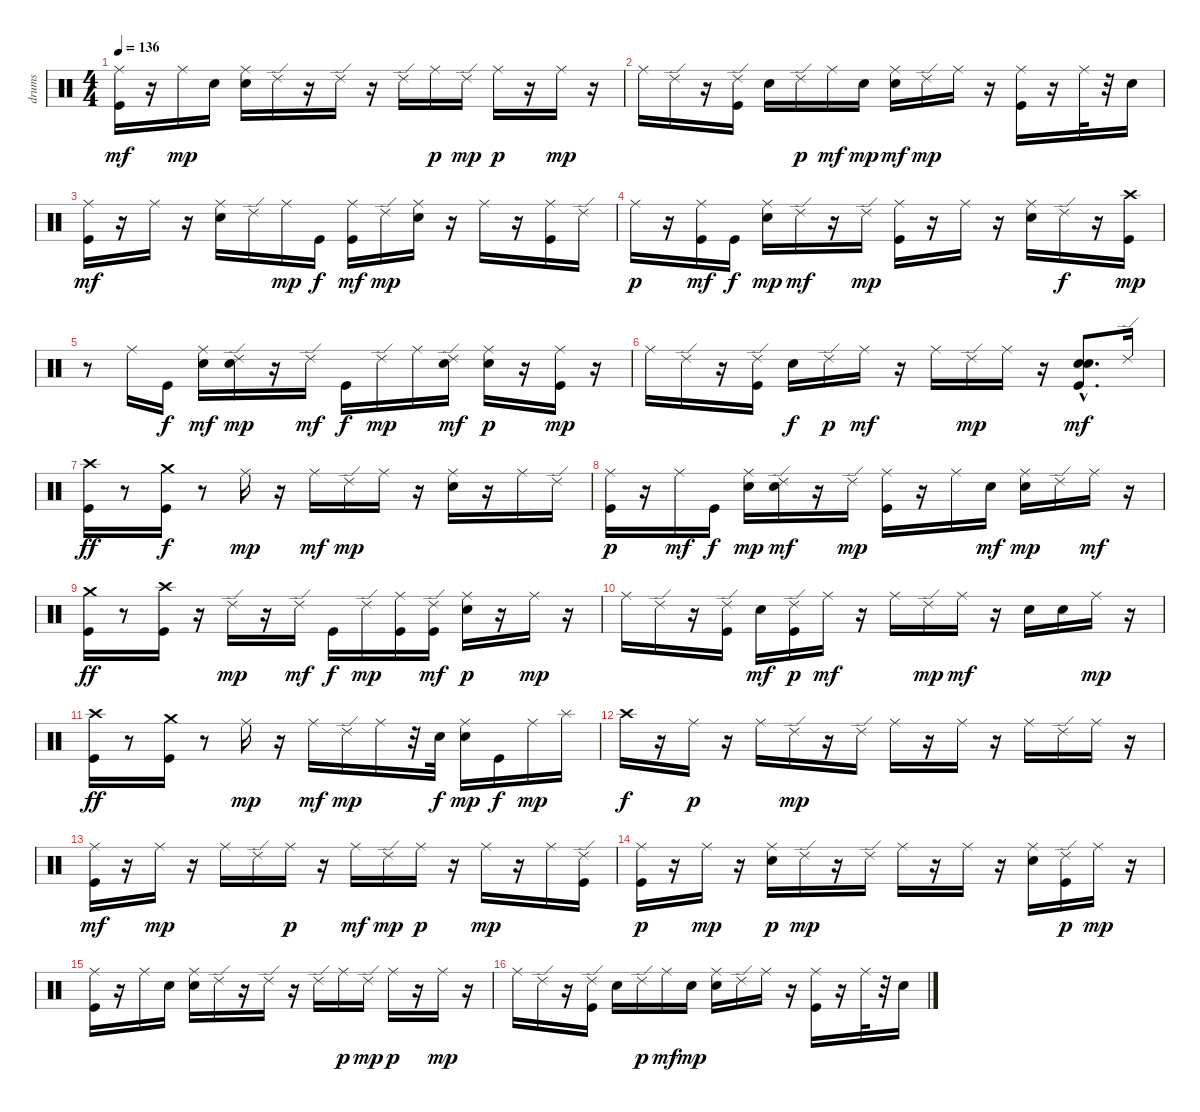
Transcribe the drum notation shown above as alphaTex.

\track ("drums   " "drums   ") {instrument percussion}
\staff {score}
\articulation defaults
\ts (4 4)
\tempo 136
\clef neutral
\ks c
("Kick (hit)" "Ride (middle)").16{dy mf} r.16 "Ride (middle)".16{dy mp} "Electric Snare (hit)".16 ("Electric Snare (hit)" "Ride (middle)").16 "Ride (edge) 2".16 r.16 "Ride (edge) 2".16 r.16 "Ride (edge) 2".16 "Ride (middle)".16{dy p} "Ride (edge) 2".16{dy mp} "Ride (middle)".16{dy p} r.16 "Ride (middle)".16{dy mp} r.16 |
"Ride (middle)".16 "Ride (edge) 2".16 r.16 ("Kick (hit)" "Ride (edge) 2").16 "Electric Snare (hit)".16 "Ride (edge) 2".16{dy p} "Ride (middle)".16{dy mf} "Electric Snare (hit)".16{dy mp} ("Electric Snare (hit)" "Ride (middle)").16{dy mf} "Ride (edge) 2".16{dy mp} "Ride (middle)".16 r.16 ("Kick (hit)" "Ride (middle)").16 r.16 "Ride (middle)".32 r.32 "Electric Snare (hit)".16 |
("Kick (hit)" "Ride (middle)").16{dy mf} r.16 "Ride (middle)".16 r.16 ("Electric Snare (hit)" "Ride (middle)").16 "Ride (edge) 2".16 "Ride (middle)".16{dy mp} "Kick (hit)".16{dy f} ("Kick (hit)" "Ride (middle)").16{dy mf} "Ride (edge) 2".16{dy mp} ("Electric Snare (hit)" "Ride (middle)").16 r.16 "Ride (middle)".16 r.16 ("Kick (hit)" "Ride (middle)").16 "Ride (edge) 2".16 |
"Ride (middle)".16{dy p} r.16 ("Kick (hit)" "Ride (middle)").16{dy mf} "Kick (hit)".16{dy f} ("Electric Snare (hit)" "Ride (middle)").16{dy mp} "Ride (edge) 2".16{dy mf} r.16 "Ride (edge) 2".16{dy mp} ("Kick (hit)" "Ride (middle)").16 r.16 "Ride (middle)".16 r.16 ("Electric Snare (hit)" "Ride (middle)").16 "Ride (edge) 2".16{dy f} r.16 ("Crash high (hit)" "Kick (hit)").16{dy mp} |
r.8 "Ride (middle)".16 "Kick (hit)".16{dy f} ("Electric Snare (hit)" "Ride (middle)").16{dy mf} ("Electric Snare (hit)" "Ride (edge) 2").16{dy mp} r.16 "Ride (edge) 2".16{dy mf} "Kick (hit)".16{dy f} "Ride (edge) 2".16{dy mp} "Ride (middle)".16 ("Electric Snare (hit)" "Ride (edge) 2").16{dy mf} ("Electric Snare (hit)" "Ride (middle)").16{dy p} r.16 ("Kick (hit)" "Ride (middle)").16{dy mp} r.16 |
"Ride (middle)".16 "Ride (edge) 2".16 r.16 ("Kick (hit)" "Ride (edge) 2").16 "Electric Snare (hit)".16{dy f} "Ride (edge) 2".16{dy p} "Ride (middle)".16{dy mf} r.16 "Ride (middle)".16 "Ride (edge) 2".16{dy mp} "Ride (middle)".16 r.16 ("Electric Snare (hit)"{hac} "Kick (hit)" "Electric Snare (hit)").8{d dy mf} "Ride (edge) 2".16 |
("Kick (hit)" "Crash high (hit)").16{dy ff} r.8 ("Kick (hit)" "Crash medium (hit)").16{dy f} r.8 "Ride (middle)".16{dy mp} r.16 "Ride (middle)".16{dy mf} "Ride (edge) 2".16{dy mp} "Ride (middle)".16 r.16 ("Electric Snare (hit)" "Ride (middle)").16 r.16 "Ride (middle)".16 "Ride (edge) 2".16 |
("Kick (hit)" "Ride (middle)").16{dy p} r.16 "Ride (middle)".16{dy mf} "Kick (hit)".16{dy f} ("Electric Snare (hit)" "Ride (middle)").16{dy mp} ("Electric Snare (hit)" "Ride (edge) 2").16{dy mf} r.16 "Ride (edge) 2".16{dy mp} ("Kick (hit)" "Ride (middle)").16 r.16 "Ride (middle)".16 "Electric Snare (hit)".16{dy mf} ("Electric Snare (hit)" "Ride (middle)").16{dy mp} "Ride (edge) 2".16 "Ride (middle)".16{dy mf} r.16 |
("Kick (hit)" "Crash medium (hit)").16{dy ff} r.8 ("Kick (hit)" "Crash high (hit)").16 r.16 "Ride (edge) 2".16{dy mp} r.16 "Ride (edge) 2".16{dy mf} "Kick (hit)".16{dy f} "Ride (edge) 2".16{dy mp} ("Kick (hit)" "Ride (middle)").16 ("Kick (hit)" "Ride (edge) 2").16{dy mf} ("Electric Snare (hit)" "Ride (middle)").16{dy p} r.16 "Ride (middle)".16{dy mp} r.16 |
"Ride (middle)".16 "Ride (edge) 2".16 r.16 ("Kick (hit)" "Ride (edge) 2").16 "Electric Snare (hit)".16{dy mf} ("Kick (hit)" "Ride (edge) 2").16{dy p} "Ride (middle)".16{dy mf} r.16 "Ride (middle)".16 "Ride (edge) 2".16{dy mp} "Ride (middle)".16{dy mf} r.16 "Electric Snare (hit)".16 "Electric Snare (hit)".16 "Ride (middle)".16{dy mp} r.16 |
("Kick (hit)" "Crash high (hit)").16{dy ff} r.8 ("Kick (hit)" "Crash medium (hit)").16 r.8 "Ride (middle)".16{dy mp} r.16 "Ride (middle)".16{dy mf} "Ride (edge) 2".16{dy mp} "Ride (middle)".16 r.32 "Electric Snare (hit)".32{dy f} ("Electric Snare (hit)" "Ride (middle)").16{dy mp} "Kick (hit)".16{dy f} "Ride (middle)".16{dy mp} "Splash (hit)".16 |
"Crash high (hit)".16{dy f} r.16 "Ride (middle)".16{dy p} r.16 "Ride (middle)".16 "Ride (edge) 2".16{dy mp} r.16 "Ride (edge) 2".16 "Ride (middle)".16 r.16 "Ride (middle)".16 r.16 "Ride (middle)".16 "Ride (edge) 2".16 "Ride (middle)".16 r.16 |
("Kick (hit)" "Ride (middle)").16{dy mf} r.16 "Ride (middle)".16{dy mp} r.16 "Ride (middle)".16 "Ride (edge) 2".16 "Ride (middle)".16{dy p} r.16 "Ride (middle)".16{dy mf} "Ride (edge) 2".16{dy mp} "Ride (middle)".16{dy p} r.16 "Ride (middle)".16{dy mp} r.16 "Ride (middle)".16 ("Kick (hit)" "Ride (edge) 2").16 |
("Kick (hit)" "Ride (middle)").16{dy p} r.16 "Ride (middle)".16{dy mp} r.16 ("Electric Snare (hit)" "Ride (middle)").16{dy p} "Ride (edge) 2".16{dy mp} r.16 "Ride (edge) 2".16 "Ride (middle)".16 r.16 "Ride (middle)".16 r.16 ("Electric Snare (hit)" "Ride (middle)").16 ("Kick (hit)" "Ride (edge) 2").16{dy p} "Ride (middle)".16{dy mp} r.16 |
("Kick (hit)" "Ride (middle)").16 r.16 "Ride (middle)".16 "Electric Snare (hit)".16 ("Electric Snare (hit)" "Ride (middle)").16 "Ride (edge) 2".16 r.16 "Ride (edge) 2".16 r.16 "Ride (edge) 2".16 "Ride (middle)".16{dy p} "Ride (edge) 2".16{dy mp} "Ride (middle)".16{dy p} r.16 "Ride (middle)".16{dy mp} r.16 |
"Ride (middle)".16 "Ride (edge) 2".16 r.16 ("Kick (hit)" "Ride (edge) 2").16 "Electric Snare (hit)".16 "Ride (edge) 2".16{dy p} "Ride (middle)".16{dy mf} "Electric Snare (hit)".16{dy mp} ("Electric Snare (hit)" "Ride (middle)").16 "Ride (edge) 2".16 "Ride (middle)".16 r.16 ("Kick (hit)" "Ride (middle)").16 r.16 "Ride (middle)".32 r.32 "Electric Snare (hit)".16
